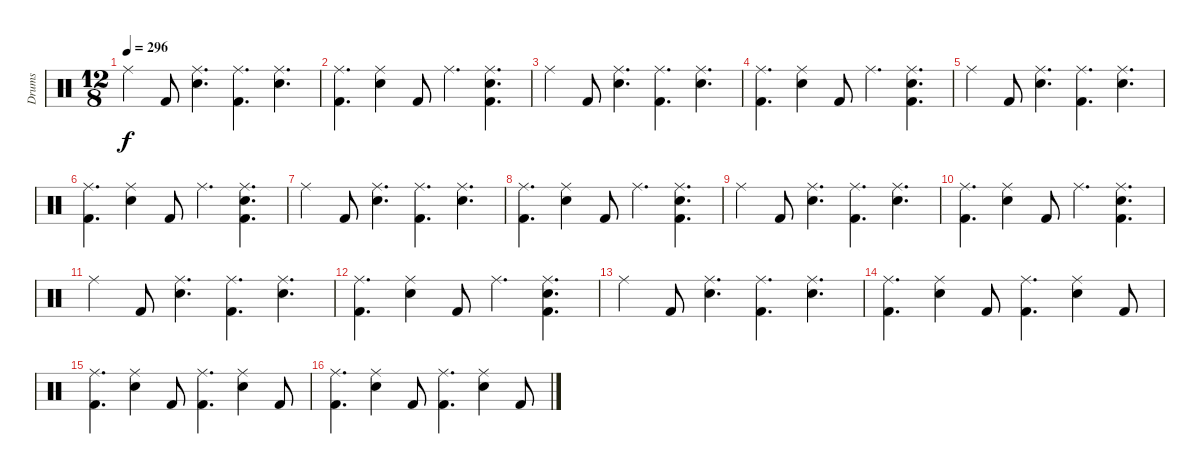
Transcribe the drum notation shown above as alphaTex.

\track ("Drums" "Drums") {instrument percussion}
\staff {score}
\articulation defaults
\ts (12 8)
\tempo 296
\clef neutral
\ks c "Ride (middle)".4{dy f} "Kick (hit) 2".8
("Ride (middle)" "Electric Snare (hit)").4{d} ("Ride (middle)" "Kick (hit) 2").4{d} ("Ride (middle)" "Electric Snare (hit)").4{d} |
("Ride (middle)" "Kick (hit) 2").4{d} ("Ride (middle)" "Electric Snare (hit)").4 "Kick (hit) 2".8 "Ride (middle)".4{d} ("Ride (middle)" "Electric Snare (hit)" "Kick (hit) 2").4{d} |
"Ride (middle)".4 "Kick (hit) 2".8 ("Ride (middle)" "Electric Snare (hit)").4{d} ("Ride (middle)" "Kick (hit) 2").4{d} ("Ride (middle)" "Electric Snare (hit)").4{d} |
("Ride (middle)" "Kick (hit) 2").4{d} ("Ride (middle)" "Electric Snare (hit)").4 "Kick (hit) 2".8 "Ride (middle)".4{d} ("Ride (middle)" "Electric Snare (hit)" "Kick (hit) 2").4{d} |
"Ride (middle)".4 "Kick (hit) 2".8 ("Ride (middle)" "Electric Snare (hit)").4{d} ("Ride (middle)" "Kick (hit) 2").4{d} ("Ride (middle)" "Electric Snare (hit)").4{d} |
("Ride (middle)" "Kick (hit) 2").4{d} ("Ride (middle)" "Electric Snare (hit)").4 "Kick (hit) 2".8 "Ride (middle)".4{d} ("Ride (middle)" "Electric Snare (hit)" "Kick (hit) 2").4{d} |
"Ride (middle)".4 "Kick (hit) 2".8 ("Ride (middle)" "Electric Snare (hit)").4{d} ("Ride (middle)" "Kick (hit) 2").4{d} ("Ride (middle)" "Electric Snare (hit)").4{d} |
("Ride (middle)" "Kick (hit) 2").4{d} ("Ride (middle)" "Electric Snare (hit)").4 "Kick (hit) 2".8 "Ride (middle)".4{d} ("Ride (middle)" "Electric Snare (hit)" "Kick (hit) 2").4{d} |
"Ride (middle)".4 "Kick (hit) 2".8 ("Ride (middle)" "Electric Snare (hit)").4{d} ("Ride (middle)" "Kick (hit) 2").4{d} ("Ride (middle)" "Electric Snare (hit)").4{d} |
("Ride (middle)" "Kick (hit) 2").4{d} ("Ride (middle)" "Electric Snare (hit)").4 "Kick (hit) 2".8 "Ride (middle)".4{d} ("Ride (middle)" "Electric Snare (hit)" "Kick (hit) 2").4{d} |
"Ride (middle)".4 "Kick (hit) 2".8 ("Ride (middle)" "Electric Snare (hit)").4{d} ("Ride (middle)" "Kick (hit) 2").4{d} ("Ride (middle)" "Electric Snare (hit)").4{d} |
("Ride (middle)" "Kick (hit) 2").4{d} ("Ride (middle)" "Electric Snare (hit)").4 "Kick (hit) 2".8 "Ride (middle)".4{d} ("Ride (middle)" "Electric Snare (hit)" "Kick (hit) 2").4{d} |
"Ride (middle)".4 "Kick (hit) 2".8 ("Ride (middle)" "Electric Snare (hit)").4{d} ("Ride (middle)" "Kick (hit) 2").4{d} ("Ride (middle)" "Electric Snare (hit)").4{d} |
("Ride (middle)" "Kick (hit) 2").4{d} ("Ride (middle)" "Electric Snare (hit)").4 "Kick (hit) 2".8 ("Ride (middle)" "Kick (hit) 2").4{d} ("Ride (middle)" "Electric Snare (hit)").4 "Kick (hit) 2".8 |
("Ride (middle)" "Kick (hit) 2").4{d} ("Ride (middle)" "Electric Snare (hit)").4 "Kick (hit) 2".8 ("Ride (middle)" "Kick (hit) 2").4{d} ("Ride (middle)" "Electric Snare (hit)").4 "Kick (hit) 2".8 |
("Ride (middle)" "Kick (hit) 2").4{d} ("Ride (middle)" "Electric Snare (hit)").4 "Kick (hit) 2".8 ("Ride (middle)" "Kick (hit) 2").4{d} ("Ride (middle)" "Electric Snare (hit)").4 "Kick (hit) 2".8
